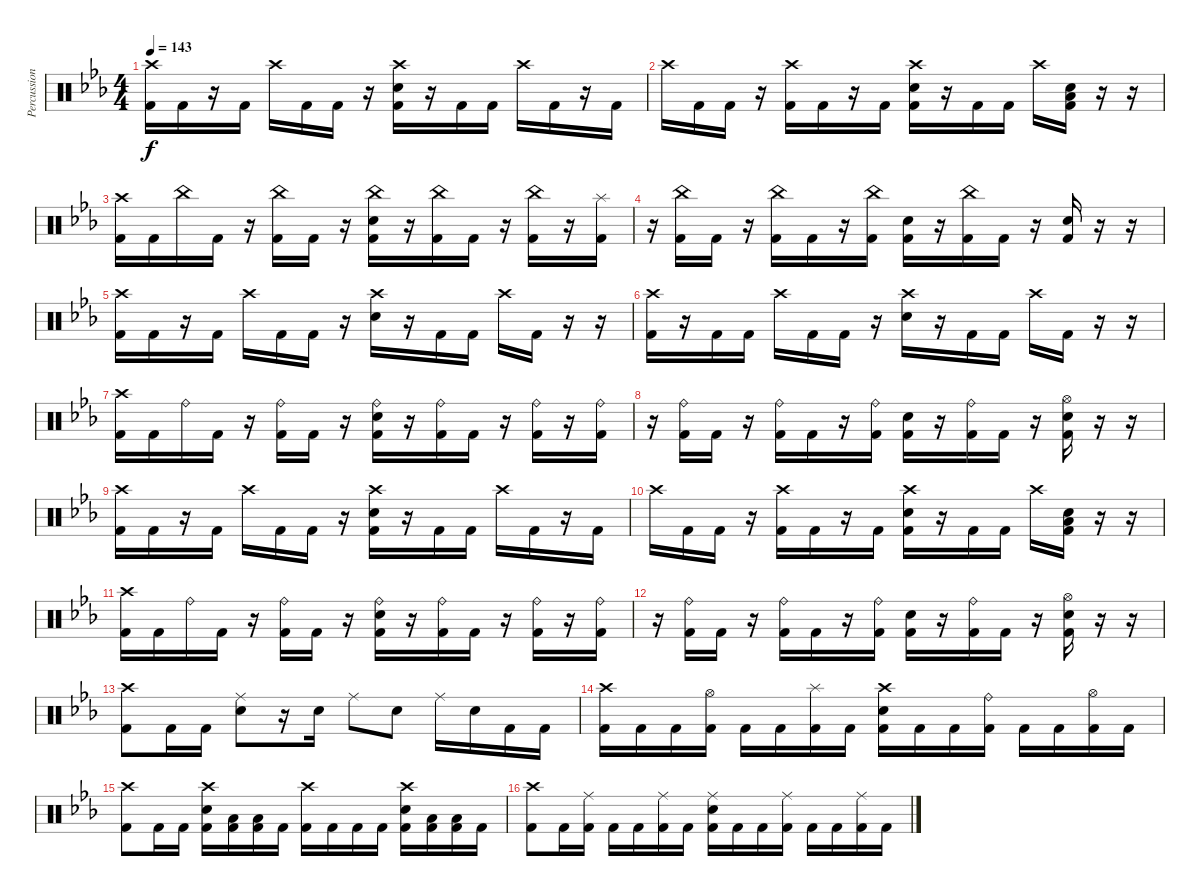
\track ("Percussion" "Percussion") {instrument percussion}
\staff {score}
\articulation defaults
\ts (4 4)
\tempo 143
\clef neutral
\ks cminor
("Crash high (hit)" "Kick (hit) 2").16{dy f} "Kick (hit) 2".16 r.16 "Kick (hit) 2".16 "Crash high (hit)".16 "Kick (hit) 2".16 "Kick (hit) 2".16 r.16 ("Crash high (hit)" "Electric Snare (hit)" "Kick (hit) 2").16 r.16 "Kick (hit) 2".16 "Kick (hit) 2".16 "Crash high (hit)".16 "Kick (hit) 2".16 r.16 "Kick (hit) 2".16 |
"Crash high (hit)".16 "Kick (hit) 2".16 "Kick (hit) 2".16 r.16 ("Crash high (hit)" "Kick (hit) 2").16 "Kick (hit) 2".16 r.16 "Kick (hit) 2".16 ("Crash high (hit)" "Electric Snare (hit)" "Kick (hit) 2").16 r.16 "Kick (hit) 2".16 "Kick (hit) 2".16 "Crash high (hit)".16 ("Low Floor Tom (hit)" "Electric Snare (hit)" "Kick (hit) 2").16 r.16 r.16 |
("Crash high (hit)" "Kick (hit) 2").16 "Kick (hit) 2".16 "China (hit)".16 "Kick (hit) 2".16 r.16 ("China (hit)" "Kick (hit) 2").16 "Kick (hit) 2".16 r.16 ("China (hit)" "Electric Snare (hit)" "Kick (hit) 2").16 r.16 ("China (hit)" "Kick (hit) 2").16 "Kick (hit) 2".16 r.16 ("China (hit)" "Kick (hit) 2").16 r.16 ("Splash (hit)" "Kick (hit) 2").16 |
r.16 ("China (hit)" "Kick (hit) 2").16 "Kick (hit) 2".16 r.16 ("China (hit)" "Kick (hit) 2").16 "Kick (hit) 2".16 r.16 ("China (hit)" "Kick (hit) 2").16 ("Electric Snare (hit)" "Kick (hit) 2").16 r.16 ("China (hit)" "Kick (hit) 2").16 "Kick (hit) 2".16 r.16 ("Electric Snare (hit)" "Kick (hit) 2").16 r.16 r.16 |
("Crash high (hit)" "Kick (hit) 2").16 "Kick (hit) 2".16 r.16 "Kick (hit) 2".16 "Crash high (hit)".16 "Kick (hit) 2".16 "Kick (hit) 2".16 r.16 ("Crash high (hit)" "Electric Snare (hit)").16 r.16 "Kick (hit) 2".16 "Kick (hit) 2".16 "Crash high (hit)".16 "Kick (hit) 2".16 r.16 r.16 |
("Crash high (hit)" "Kick (hit) 2").16 r.16 "Kick (hit) 2".16 "Kick (hit) 2".16 "Crash high (hit)".16 "Kick (hit) 2".16 "Kick (hit) 2".16 r.16 ("Crash high (hit)" "Electric Snare (hit)").16 r.16 "Kick (hit) 2".16 "Kick (hit) 2".16 "Crash high (hit)".16 "Kick (hit) 2".16 r.16 r.16 |
("Crash high (hit)" "Kick (hit) 2").16 "Kick (hit) 2".16 "Ride (bell)".16 "Kick (hit) 2".16 r.16 ("Ride (bell)" "Kick (hit) 2").16 "Kick (hit) 2".16 r.16 ("Ride (bell)" "Electric Snare (hit)" "Kick (hit) 2").16 r.16 ("Ride (bell)" "Kick (hit) 2").16 "Kick (hit) 2".16 r.16 ("Ride (bell)" "Kick (hit) 2").16 r.16 ("Ride (bell)" "Kick (hit) 2").16 |
r.16 ("Ride (bell)" "Kick (hit) 2").16 "Kick (hit) 2".16 r.16 ("Ride (bell)" "Kick (hit) 2").16 "Kick (hit) 2".16 r.16 ("Ride (bell)" "Kick (hit) 2").16 ("Electric Snare (hit)" "Kick (hit) 2").16 r.16 ("Ride (bell)" "Kick (hit) 2").16 "Kick (hit) 2".16 r.16 ("Hi-Hat (open)" "Electric Snare (hit)" "Kick (hit) 2").16 r.16 r.16 |
("Crash high (hit)" "Kick (hit) 2").16 "Kick (hit) 2".16 r.16 "Kick (hit) 2".16 "Crash high (hit)".16 "Kick (hit) 2".16 "Kick (hit) 2".16 r.16 ("Crash high (hit)" "Electric Snare (hit)" "Kick (hit) 2").16 r.16 "Kick (hit) 2".16 "Kick (hit) 2".16 "Crash high (hit)".16 "Kick (hit) 2".16 r.16 "Kick (hit) 2".16 |
"Crash high (hit)".16 "Kick (hit) 2".16 "Kick (hit) 2".16 r.16 ("Crash high (hit)" "Kick (hit) 2").16 "Kick (hit) 2".16 r.16 "Kick (hit) 2".16 ("Crash high (hit)" "Electric Snare (hit)" "Kick (hit) 2").16 r.16 "Kick (hit) 2".16 "Kick (hit) 2".16 "Crash high (hit)".16 ("Low Floor Tom (hit)" "Electric Snare (hit)" "Kick (hit) 2").16 r.16 r.16 |
("Crash high (hit)" "Kick (hit) 2").16 "Kick (hit) 2".16 "Ride (bell)".16 "Kick (hit) 2".16 r.16 ("Ride (bell)" "Kick (hit) 2").16 "Kick (hit) 2".16 r.16 ("Ride (bell)" "Electric Snare (hit)" "Kick (hit) 2").16 r.16 ("Ride (bell)" "Kick (hit) 2").16 "Kick (hit) 2".16 r.16 ("Ride (bell)" "Kick (hit) 2").16 r.16 ("Ride (bell)" "Kick (hit) 2").16 |
r.16 ("Ride (bell)" "Kick (hit) 2").16 "Kick (hit) 2".16 r.16 ("Ride (bell)" "Kick (hit) 2").16 "Kick (hit) 2".16 r.16 ("Ride (bell)" "Kick (hit) 2").16 ("Electric Snare (hit)" "Kick (hit) 2").16 r.16 ("Ride (bell)" "Kick (hit) 2").16 "Kick (hit) 2".16 r.16 ("Hi-Hat (open)" "Electric Snare (hit)" "Kick (hit) 2").16 r.16 r.16 |
("Crash high (hit)" "Kick (hit) 2").8 "Kick (hit) 2".16 "Kick (hit) 2".16 ("Ride (middle)" "Electric Snare (hit)").8 r.16 "Electric Snare (hit)".16 "Ride (middle)".8 "Electric Snare (hit)".8 "Ride (middle)".16 "Electric Snare (hit)".16 "Kick (hit) 2".16 "Kick (hit) 2".16 |
("Crash high (hit)" "Kick (hit) 2").16 "Kick (hit) 2".16 "Kick (hit) 2".16 ("Hi-Hat (open)" "Kick (hit) 2").16 "Kick (hit) 2".16 "Kick (hit) 2".16 ("Splash (hit)" "Kick (hit) 2").16 "Kick (hit) 2".16 ("Crash high (hit)" "Electric Snare (hit)" "Kick (hit) 2").16 "Kick (hit) 2".16 "Kick (hit) 2".16 ("Ride (bell)" "Kick (hit) 2").16 "Kick (hit) 2".16 "Kick (hit) 2".16 ("Hi-Hat (open)" "Kick (hit) 2").16 "Kick (hit) 2".16 |
("Crash high (hit)" "Kick (hit) 2").8 "Kick (hit) 2".16 "Kick (hit) 2".16 ("Crash high (hit)" "Electric Snare (hit)" "Kick (hit) 2").16 ("Low Tom (hit)" "Kick (hit) 2").16 ("Low Tom (hit)" "Kick (hit) 2").16 "Kick (hit) 2".16 ("Crash high (hit)" "Kick (hit) 2").16 "Kick (hit) 2".16 "Kick (hit) 2".16 "Kick (hit) 2".16 ("Crash high (hit)" "Electric Snare (hit)" "Kick (hit) 2").16 ("Low Floor Tom (hit)" "Kick (hit) 2").16 ("Low Floor Tom (hit)" "Kick (hit) 2").16 "Kick (hit) 2".16 |
("Crash high (hit)" "Kick (hit) 2").8 "Kick (hit) 2".16 ("Ride (middle)" "Kick (hit) 2").16 "Kick (hit) 2".16 "Kick (hit) 2".16 ("Ride (middle)" "Kick (hit) 2").16 "Kick (hit) 2".16 ("Ride (middle)" "Electric Snare (hit)" "Kick (hit) 2").16 "Kick (hit) 2".16 "Kick (hit) 2".16 ("Ride (middle)" "Kick (hit) 2").16 "Kick (hit) 2".16 "Kick (hit) 2".16 ("Ride (middle)" "Kick (hit) 2").16 "Kick (hit) 2".16
